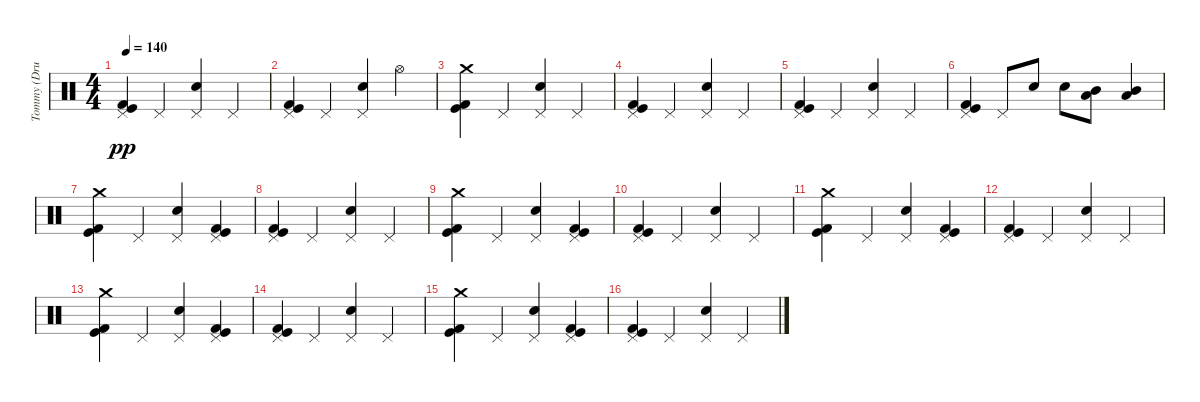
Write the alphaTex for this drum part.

\track ("Tommy (Drums)" "Tommy (Dru") {instrument percussion}
\staff {score}
\articulation defaults
\ts (4 4)
\tempo 140
\clef neutral
\ks c
("Pedal Hi-Hat (hit)" "Kick (hit) 2" "Kick (hit)").4{dy pp} "Pedal Hi-Hat (hit)".4 ("Pedal Hi-Hat (hit)" "Snare (hit) 2").4 "Pedal Hi-Hat (hit)".4 |
("Pedal Hi-Hat (hit)" "Kick (hit) 2" "Kick (hit)").4 "Pedal Hi-Hat (hit)".4 ("Pedal Hi-Hat (hit)" "Snare (hit) 2").4 "Hi-Hat (open)".4 |
("Kick (hit) 2" "Kick (hit)" "Crash medium (hit)").4 "Pedal Hi-Hat (hit)".4 ("Pedal Hi-Hat (hit)" "Snare (hit) 2").4 "Pedal Hi-Hat (hit)".4 |
("Pedal Hi-Hat (hit)" "Kick (hit) 2" "Kick (hit)").4 "Pedal Hi-Hat (hit)".4 ("Pedal Hi-Hat (hit)" "Snare (hit) 2").4 "Pedal Hi-Hat (hit)".4 |
("Pedal Hi-Hat (hit)" "Kick (hit) 2" "Kick (hit)").4 "Pedal Hi-Hat (hit)".4 ("Pedal Hi-Hat (hit)" "Snare (hit) 2").4 "Pedal Hi-Hat (hit)".4 |
("Pedal Hi-Hat (hit)" "Kick (hit) 2" "Kick (hit)").4 "Pedal Hi-Hat (hit)".8 "Snare (hit) 2".8 "Snare (hit) 2".8 ("Low Tom (hit)" "Mid Tom (hit)").8 ("Low Tom (hit)" "Mid Tom (hit)").4 |
("Kick (hit) 2" "Kick (hit)" "Crash medium (hit)").4 "Pedal Hi-Hat (hit)".4 ("Pedal Hi-Hat (hit)" "Snare (hit) 2").4 ("Kick (hit)" "Kick (hit) 2" "Pedal Hi-Hat (hit)").4 |
("Pedal Hi-Hat (hit)" "Kick (hit) 2" "Kick (hit)").4 "Pedal Hi-Hat (hit)".4 ("Pedal Hi-Hat (hit)" "Snare (hit) 2").4 "Pedal Hi-Hat (hit)".4 |
("Kick (hit) 2" "Kick (hit)" "Crash medium (hit)").4 "Pedal Hi-Hat (hit)".4 ("Pedal Hi-Hat (hit)" "Snare (hit) 2").4 ("Kick (hit)" "Kick (hit) 2" "Pedal Hi-Hat (hit)").4 |
("Pedal Hi-Hat (hit)" "Kick (hit) 2" "Kick (hit)").4 "Pedal Hi-Hat (hit)".4 ("Pedal Hi-Hat (hit)" "Snare (hit) 2").4 "Pedal Hi-Hat (hit)".4 |
("Kick (hit) 2" "Kick (hit)" "Crash medium (hit)").4 "Pedal Hi-Hat (hit)".4 ("Pedal Hi-Hat (hit)" "Snare (hit) 2").4 ("Kick (hit)" "Kick (hit) 2" "Pedal Hi-Hat (hit)").4 |
("Pedal Hi-Hat (hit)" "Kick (hit) 2" "Kick (hit)").4 "Pedal Hi-Hat (hit)".4 ("Pedal Hi-Hat (hit)" "Snare (hit) 2").4 "Pedal Hi-Hat (hit)".4 |
("Kick (hit) 2" "Kick (hit)" "Crash medium (hit)").4 "Pedal Hi-Hat (hit)".4 ("Pedal Hi-Hat (hit)" "Snare (hit) 2").4 ("Kick (hit)" "Kick (hit) 2" "Pedal Hi-Hat (hit)").4 |
("Pedal Hi-Hat (hit)" "Kick (hit) 2" "Kick (hit)").4 "Pedal Hi-Hat (hit)".4 ("Pedal Hi-Hat (hit)" "Snare (hit) 2").4 "Pedal Hi-Hat (hit)".4 |
("Kick (hit) 2" "Kick (hit)" "Crash medium (hit)").4 "Pedal Hi-Hat (hit)".4 ("Pedal Hi-Hat (hit)" "Snare (hit) 2").4 ("Kick (hit)" "Kick (hit) 2" "Pedal Hi-Hat (hit)").4 |
("Pedal Hi-Hat (hit)" "Kick (hit) 2" "Kick (hit)").4 "Pedal Hi-Hat (hit)".4 ("Pedal Hi-Hat (hit)" "Snare (hit) 2").4 "Pedal Hi-Hat (hit)".4
